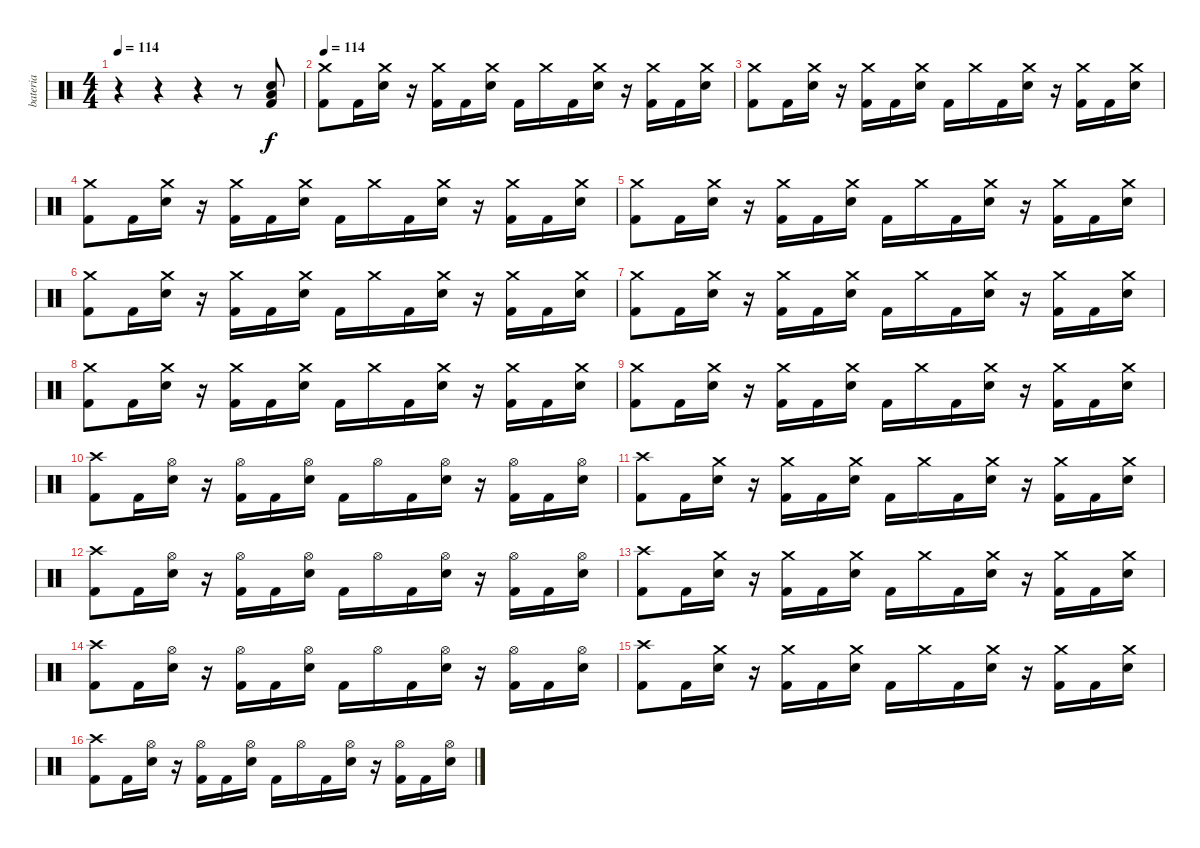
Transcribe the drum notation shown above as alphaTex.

\track ("bateria" "bateria") {instrument percussion}
\staff {score}
\articulation defaults
\ts (4 4)
\tempo 114
\clef neutral
\ks c
r.4{dy mp} r.4 r.4 r.8 ("Low Floor Tom (hit)" "Electric Snare (hit)" "Kick (hit) 2").8{dy f} |
\tempo 114
("Crash medium (hit)" "Kick (hit) 2").8 "Kick (hit) 2".16 ("Crash medium (hit)" "Electric Snare (hit)").16 r.16 ("Crash medium (hit)" "Kick (hit) 2").16 "Kick (hit) 2".16 ("Crash medium (hit)" "Electric Snare (hit)").16 "Kick (hit) 2".16 "Crash medium (hit)".16 "Kick (hit) 2".16 ("Crash medium (hit)" "Electric Snare (hit)").16 r.16 ("Crash medium (hit)" "Kick (hit) 2").16 "Kick (hit) 2".16 ("Crash medium (hit)" "Electric Snare (hit)").16 |
("Crash medium (hit)" "Kick (hit) 2").8 "Kick (hit) 2".16 ("Crash medium (hit)" "Electric Snare (hit)").16 r.16 ("Crash medium (hit)" "Kick (hit) 2").16 "Kick (hit) 2".16 ("Crash medium (hit)" "Electric Snare (hit)").16 "Kick (hit) 2".16 "Crash medium (hit)".16 "Kick (hit) 2".16 ("Crash medium (hit)" "Electric Snare (hit)").16 r.16 ("Crash medium (hit)" "Kick (hit) 2").16 "Kick (hit) 2".16 ("Crash medium (hit)" "Electric Snare (hit)").16 |
("Crash medium (hit)" "Kick (hit) 2").8 "Kick (hit) 2".16 ("Crash medium (hit)" "Electric Snare (hit)").16 r.16 ("Crash medium (hit)" "Kick (hit) 2").16 "Kick (hit) 2".16 ("Crash medium (hit)" "Electric Snare (hit)").16 "Kick (hit) 2".16 "Crash medium (hit)".16 "Kick (hit) 2".16 ("Crash medium (hit)" "Electric Snare (hit)").16 r.16 ("Crash medium (hit)" "Kick (hit) 2").16 "Kick (hit) 2".16 ("Crash medium (hit)" "Electric Snare (hit)").16 |
("Crash medium (hit)" "Kick (hit) 2").8 "Kick (hit) 2".16 ("Crash medium (hit)" "Electric Snare (hit)").16 r.16 ("Crash medium (hit)" "Kick (hit) 2").16 "Kick (hit) 2".16 ("Crash medium (hit)" "Electric Snare (hit)").16 "Kick (hit) 2".16 "Crash medium (hit)".16 "Kick (hit) 2".16 ("Crash medium (hit)" "Electric Snare (hit)").16 r.16 ("Crash medium (hit)" "Kick (hit) 2").16 "Kick (hit) 2".16 ("Crash medium (hit)" "Electric Snare (hit)").16 |
("Crash medium (hit)" "Kick (hit) 2").8 "Kick (hit) 2".16 ("Crash medium (hit)" "Electric Snare (hit)").16 r.16 ("Crash medium (hit)" "Kick (hit) 2").16 "Kick (hit) 2".16 ("Crash medium (hit)" "Electric Snare (hit)").16 "Kick (hit) 2".16 "Crash medium (hit)".16 "Kick (hit) 2".16 ("Crash medium (hit)" "Electric Snare (hit)").16 r.16 ("Crash medium (hit)" "Kick (hit) 2").16 "Kick (hit) 2".16 ("Crash medium (hit)" "Electric Snare (hit)").16 |
("Crash medium (hit)" "Kick (hit) 2").8 "Kick (hit) 2".16 ("Crash medium (hit)" "Electric Snare (hit)").16 r.16 ("Crash medium (hit)" "Kick (hit) 2").16 "Kick (hit) 2".16 ("Crash medium (hit)" "Electric Snare (hit)").16 "Kick (hit) 2".16 "Crash medium (hit)".16 "Kick (hit) 2".16 ("Crash medium (hit)" "Electric Snare (hit)").16 r.16 ("Crash medium (hit)" "Kick (hit) 2").16 "Kick (hit) 2".16 ("Crash medium (hit)" "Electric Snare (hit)").16 |
("Crash medium (hit)" "Kick (hit) 2").8 "Kick (hit) 2".16 ("Crash medium (hit)" "Electric Snare (hit)").16 r.16 ("Crash medium (hit)" "Kick (hit) 2").16 "Kick (hit) 2".16 ("Crash medium (hit)" "Electric Snare (hit)").16 "Kick (hit) 2".16 "Crash medium (hit)".16 "Kick (hit) 2".16 ("Crash medium (hit)" "Electric Snare (hit)").16 r.16 ("Crash medium (hit)" "Kick (hit) 2").16 "Kick (hit) 2".16 ("Crash medium (hit)" "Electric Snare (hit)").16 |
("Crash medium (hit)" "Kick (hit) 2").8 "Kick (hit) 2".16 ("Crash medium (hit)" "Electric Snare (hit)").16 r.16 ("Crash medium (hit)" "Kick (hit) 2").16 "Kick (hit) 2".16 ("Crash medium (hit)" "Electric Snare (hit)").16 "Kick (hit) 2".16 "Crash medium (hit)".16 "Kick (hit) 2".16 ("Crash medium (hit)" "Electric Snare (hit)").16 r.16 ("Crash medium (hit)" "Kick (hit) 2").16 "Kick (hit) 2".16 ("Crash medium (hit)" "Electric Snare (hit)").16 |
("Crash high (hit)" "Kick (hit) 2").8 "Kick (hit) 2".16 ("Hi-Hat (open)" "Electric Snare (hit)").16 r.16 ("Hi-Hat (open)" "Kick (hit) 2").16 "Kick (hit) 2".16 ("Hi-Hat (open)" "Electric Snare (hit)").16 "Kick (hit) 2".16 "Hi-Hat (open)".16 "Kick (hit) 2".16 ("Hi-Hat (open)" "Electric Snare (hit)").16 r.16 ("Hi-Hat (open)" "Kick (hit) 2").16 "Kick (hit) 2".16 ("Hi-Hat (open)" "Electric Snare (hit)").16 |
("Crash high (hit)" "Kick (hit) 2").8 "Kick (hit) 2".16 ("Crash medium (hit)" "Electric Snare (hit)").16 r.16 ("Crash medium (hit)" "Kick (hit) 2").16 "Kick (hit) 2".16 ("Crash medium (hit)" "Electric Snare (hit)").16 "Kick (hit) 2".16 "Crash medium (hit)".16 "Kick (hit) 2".16 ("Crash medium (hit)" "Electric Snare (hit)").16 r.16 ("Crash medium (hit)" "Kick (hit) 2").16 "Kick (hit) 2".16 ("Crash medium (hit)" "Electric Snare (hit)").16 |
("Crash high (hit)" "Kick (hit) 2").8 "Kick (hit) 2".16 ("Hi-Hat (open)" "Electric Snare (hit)").16 r.16 ("Hi-Hat (open)" "Kick (hit) 2").16 "Kick (hit) 2".16 ("Hi-Hat (open)" "Electric Snare (hit)").16 "Kick (hit) 2".16 "Hi-Hat (open)".16 "Kick (hit) 2".16 ("Hi-Hat (open)" "Electric Snare (hit)").16 r.16 ("Hi-Hat (open)" "Kick (hit) 2").16 "Kick (hit) 2".16 ("Hi-Hat (open)" "Electric Snare (hit)").16 |
("Crash high (hit)" "Kick (hit) 2").8 "Kick (hit) 2".16 ("Crash medium (hit)" "Electric Snare (hit)").16 r.16 ("Crash medium (hit)" "Kick (hit) 2").16 "Kick (hit) 2".16 ("Crash medium (hit)" "Electric Snare (hit)").16 "Kick (hit) 2".16 "Crash medium (hit)".16 "Kick (hit) 2".16 ("Crash medium (hit)" "Electric Snare (hit)").16 r.16 ("Crash medium (hit)" "Kick (hit) 2").16 "Kick (hit) 2".16 ("Crash medium (hit)" "Electric Snare (hit)").16 |
("Crash high (hit)" "Kick (hit) 2").8 "Kick (hit) 2".16 ("Hi-Hat (open)" "Electric Snare (hit)").16 r.16 ("Hi-Hat (open)" "Kick (hit) 2").16 "Kick (hit) 2".16 ("Hi-Hat (open)" "Electric Snare (hit)").16 "Kick (hit) 2".16 "Hi-Hat (open)".16 "Kick (hit) 2".16 ("Hi-Hat (open)" "Electric Snare (hit)").16 r.16 ("Hi-Hat (open)" "Kick (hit) 2").16 "Kick (hit) 2".16 ("Hi-Hat (open)" "Electric Snare (hit)").16 |
("Crash high (hit)" "Kick (hit) 2").8 "Kick (hit) 2".16 ("Crash medium (hit)" "Electric Snare (hit)").16 r.16 ("Crash medium (hit)" "Kick (hit) 2").16 "Kick (hit) 2".16 ("Crash medium (hit)" "Electric Snare (hit)").16 "Kick (hit) 2".16 "Crash medium (hit)".16 "Kick (hit) 2".16 ("Crash medium (hit)" "Electric Snare (hit)").16 r.16 ("Crash medium (hit)" "Kick (hit) 2").16 "Kick (hit) 2".16 ("Crash medium (hit)" "Electric Snare (hit)").16 |
("Crash high (hit)" "Kick (hit) 2").8 "Kick (hit) 2".16 ("Hi-Hat (open)" "Electric Snare (hit)").16 r.16 ("Hi-Hat (open)" "Kick (hit) 2").16 "Kick (hit) 2".16 ("Hi-Hat (open)" "Electric Snare (hit)").16 "Kick (hit) 2".16 "Hi-Hat (open)".16 "Kick (hit) 2".16 ("Hi-Hat (open)" "Electric Snare (hit)").16 r.16 ("Hi-Hat (open)" "Kick (hit) 2").16 "Kick (hit) 2".16 ("Hi-Hat (open)" "Electric Snare (hit)").16
